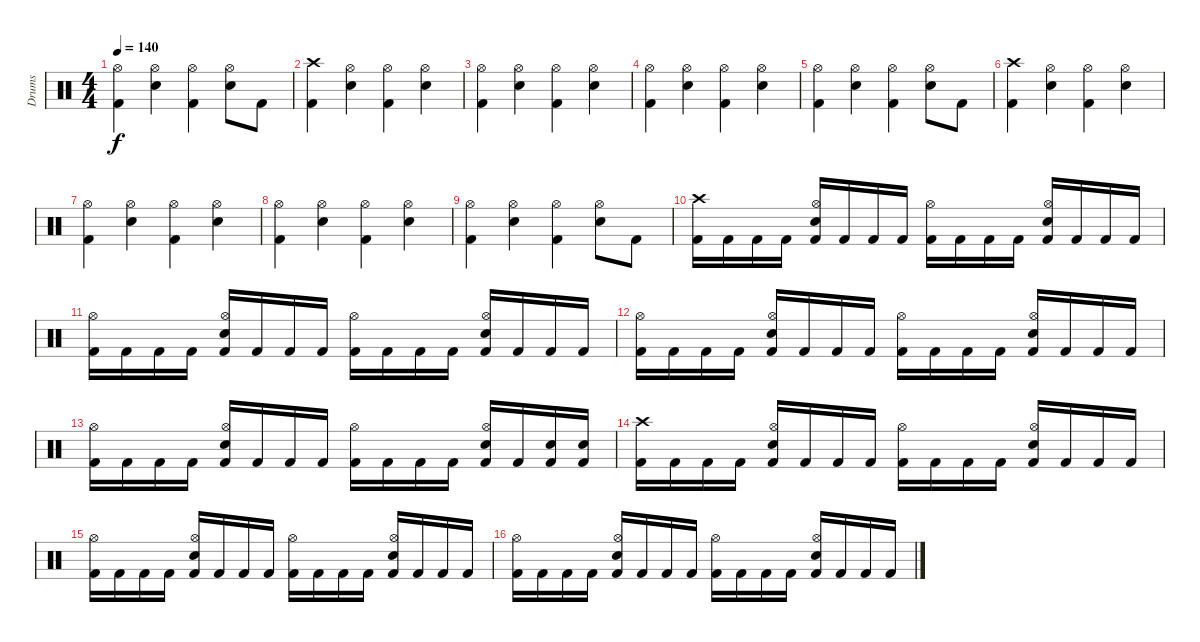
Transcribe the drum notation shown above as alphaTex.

\track ("Drums" "Drums") {instrument percussion}
\staff {score}
\articulation defaults
\ts (4 4)
\tempo 140
\clef neutral
\ks c
("Kick (hit) 2" "Hi-Hat (open)").4{dy f} ("Electric Snare (hit)" "Hi-Hat (open)").4 ("Kick (hit) 2" "Hi-Hat (open)").4 ("Electric Snare (hit)" "Hi-Hat (open)").8 "Kick (hit) 2".8 |
("Kick (hit) 2" "Crash high (hit)").4 ("Electric Snare (hit)" "Hi-Hat (open)").4 ("Kick (hit) 2" "Hi-Hat (open)").4 ("Electric Snare (hit)" "Hi-Hat (open)").4 |
("Kick (hit) 2" "Hi-Hat (open)").4 ("Electric Snare (hit)" "Hi-Hat (open)").4 ("Kick (hit) 2" "Hi-Hat (open)").4 ("Electric Snare (hit)" "Hi-Hat (open)").4 |
("Kick (hit) 2" "Hi-Hat (open)").4 ("Electric Snare (hit)" "Hi-Hat (open)").4 ("Kick (hit) 2" "Hi-Hat (open)").4 ("Electric Snare (hit)" "Hi-Hat (open)").4 |
("Kick (hit) 2" "Hi-Hat (open)").4 ("Electric Snare (hit)" "Hi-Hat (open)").4 ("Kick (hit) 2" "Hi-Hat (open)").4 ("Electric Snare (hit)" "Hi-Hat (open)").8 "Kick (hit) 2".8 |
("Kick (hit) 2" "Crash high (hit)").4 ("Electric Snare (hit)" "Hi-Hat (open)").4 ("Kick (hit) 2" "Hi-Hat (open)").4 ("Electric Snare (hit)" "Hi-Hat (open)").4 |
("Kick (hit) 2" "Hi-Hat (open)").4 ("Electric Snare (hit)" "Hi-Hat (open)").4 ("Kick (hit) 2" "Hi-Hat (open)").4 ("Electric Snare (hit)" "Hi-Hat (open)").4 |
("Kick (hit) 2" "Hi-Hat (open)").4 ("Electric Snare (hit)" "Hi-Hat (open)").4 ("Kick (hit) 2" "Hi-Hat (open)").4 ("Electric Snare (hit)" "Hi-Hat (open)").4 |
("Kick (hit) 2" "Hi-Hat (open)").4 ("Electric Snare (hit)" "Hi-Hat (open)").4 ("Kick (hit) 2" "Hi-Hat (open)").4 ("Electric Snare (hit)" "Hi-Hat (open)").8 "Kick (hit) 2".8 |
("Kick (hit) 2" "Crash high (hit)").16 "Kick (hit) 2".16 "Kick (hit) 2".16 "Kick (hit) 2".16 ("Kick (hit) 2" "Electric Snare (hit)" "Hi-Hat (open)").16 "Kick (hit) 2".16 "Kick (hit) 2".16 "Kick (hit) 2".16 ("Kick (hit) 2" "Hi-Hat (open)").16 "Kick (hit) 2".16 "Kick (hit) 2".16 "Kick (hit) 2".16 ("Kick (hit) 2" "Electric Snare (hit)" "Hi-Hat (open)").16 "Kick (hit) 2".16 "Kick (hit) 2".16 "Kick (hit) 2".16 |
("Kick (hit) 2" "Hi-Hat (open)").16 "Kick (hit) 2".16 "Kick (hit) 2".16 "Kick (hit) 2".16 ("Kick (hit) 2" "Electric Snare (hit)" "Hi-Hat (open)").16 "Kick (hit) 2".16 "Kick (hit) 2".16 "Kick (hit) 2".16 ("Kick (hit) 2" "Hi-Hat (open)").16 "Kick (hit) 2".16 "Kick (hit) 2".16 "Kick (hit) 2".16 ("Kick (hit) 2" "Electric Snare (hit)" "Hi-Hat (open)").16 "Kick (hit) 2".16 "Kick (hit) 2".16 "Kick (hit) 2".16 |
("Kick (hit) 2" "Hi-Hat (open)").16 "Kick (hit) 2".16 "Kick (hit) 2".16 "Kick (hit) 2".16 ("Kick (hit) 2" "Electric Snare (hit)" "Hi-Hat (open)").16 "Kick (hit) 2".16 "Kick (hit) 2".16 "Kick (hit) 2".16 ("Kick (hit) 2" "Hi-Hat (open)").16 "Kick (hit) 2".16 "Kick (hit) 2".16 "Kick (hit) 2".16 ("Kick (hit) 2" "Electric Snare (hit)" "Hi-Hat (open)").16 "Kick (hit) 2".16 "Kick (hit) 2".16 "Kick (hit) 2".16 |
("Kick (hit) 2" "Hi-Hat (open)").16 "Kick (hit) 2".16 "Kick (hit) 2".16 "Kick (hit) 2".16 ("Kick (hit) 2" "Electric Snare (hit)" "Hi-Hat (open)").16 "Kick (hit) 2".16 "Kick (hit) 2".16 "Kick (hit) 2".16 ("Kick (hit) 2" "Hi-Hat (open)").16 "Kick (hit) 2".16 "Kick (hit) 2".16 "Kick (hit) 2".16 ("Kick (hit) 2" "Electric Snare (hit)" "Hi-Hat (open)").16 "Kick (hit) 2".16 ("Kick (hit) 2" "Electric Snare (hit)").16 ("Kick (hit) 2" "Electric Snare (hit)").16 |
("Kick (hit) 2" "Crash high (hit)").16 "Kick (hit) 2".16 "Kick (hit) 2".16 "Kick (hit) 2".16 ("Kick (hit) 2" "Electric Snare (hit)" "Hi-Hat (open)").16 "Kick (hit) 2".16 "Kick (hit) 2".16 "Kick (hit) 2".16 ("Kick (hit) 2" "Hi-Hat (open)").16 "Kick (hit) 2".16 "Kick (hit) 2".16 "Kick (hit) 2".16 ("Kick (hit) 2" "Electric Snare (hit)" "Hi-Hat (open)").16 "Kick (hit) 2".16 "Kick (hit) 2".16 "Kick (hit) 2".16 |
("Kick (hit) 2" "Hi-Hat (open)").16 "Kick (hit) 2".16 "Kick (hit) 2".16 "Kick (hit) 2".16 ("Kick (hit) 2" "Electric Snare (hit)" "Hi-Hat (open)").16 "Kick (hit) 2".16 "Kick (hit) 2".16 "Kick (hit) 2".16 ("Kick (hit) 2" "Hi-Hat (open)").16 "Kick (hit) 2".16 "Kick (hit) 2".16 "Kick (hit) 2".16 ("Kick (hit) 2" "Electric Snare (hit)" "Hi-Hat (open)").16 "Kick (hit) 2".16 "Kick (hit) 2".16 "Kick (hit) 2".16 |
("Kick (hit) 2" "Hi-Hat (open)").16 "Kick (hit) 2".16 "Kick (hit) 2".16 "Kick (hit) 2".16 ("Kick (hit) 2" "Electric Snare (hit)" "Hi-Hat (open)").16 "Kick (hit) 2".16 "Kick (hit) 2".16 "Kick (hit) 2".16 ("Kick (hit) 2" "Hi-Hat (open)").16 "Kick (hit) 2".16 "Kick (hit) 2".16 "Kick (hit) 2".16 ("Kick (hit) 2" "Electric Snare (hit)" "Hi-Hat (open)").16 "Kick (hit) 2".16 "Kick (hit) 2".16 "Kick (hit) 2".16
